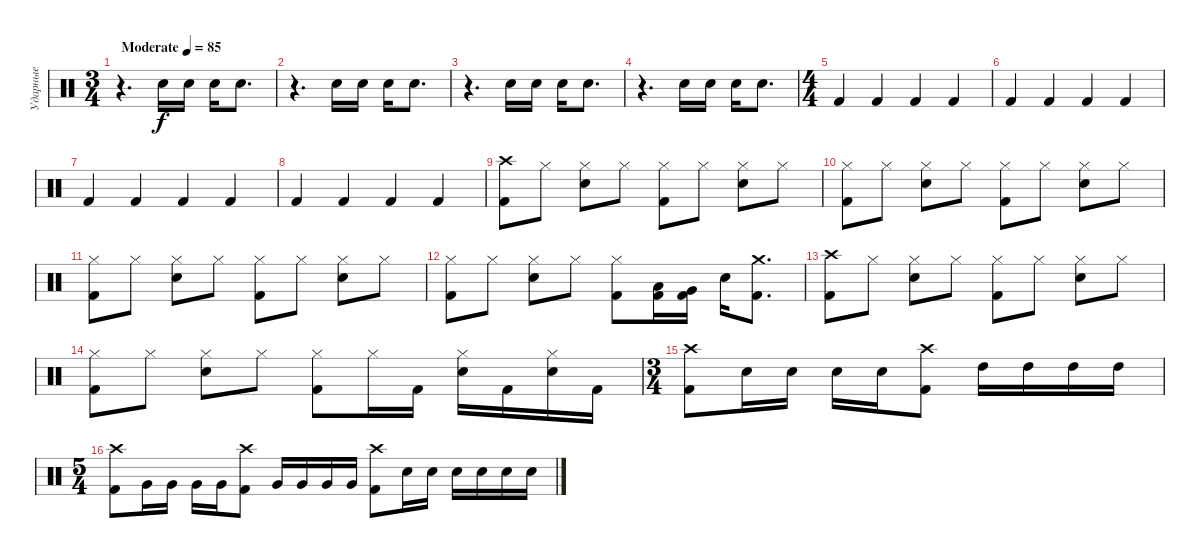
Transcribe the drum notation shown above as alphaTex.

\track ("Ударные" "Ударные") {instrument percussion}
\staff {score}
\articulation defaults
\ts (3 4)
\tempo (85 "Moderate")
\clef neutral
\ks c
r.4{d dy f} "Electric Snare (hit)".16 "Electric Snare (hit)".16 "Electric Snare (hit)".16 "Electric Snare (hit)".8{d} |
r.4{d} "Electric Snare (hit)".16 "Electric Snare (hit)".16 "Electric Snare (hit)".16 "Electric Snare (hit)".8{d} |
r.4{d} "Electric Snare (hit)".16 "Electric Snare (hit)".16 "Electric Snare (hit)".16 "Electric Snare (hit)".8{d} |
r.4{d} "Electric Snare (hit)".16 "Electric Snare (hit)".16 "Electric Snare (hit)".16 "Electric Snare (hit)".8{d} |
\ts (4 4)
"Kick (hit) 2".4 "Kick (hit) 2".4 "Kick (hit) 2".4 "Kick (hit) 2".4 |
"Kick (hit) 2".4 "Kick (hit) 2".4 "Kick (hit) 2".4 "Kick (hit) 2".4 |
"Kick (hit) 2".4 "Kick (hit) 2".4 "Kick (hit) 2".4 "Kick (hit) 2".4 |
"Kick (hit) 2".4 "Kick (hit) 2".4 "Kick (hit) 2".4 "Kick (hit) 2".4 |
("Crash high (hit)" "Kick (hit) 2").8 "Hi-Hat (closed)".8 ("Hi-Hat (closed)" "Electric Snare (hit)").8 "Hi-Hat (closed)".8 ("Hi-Hat (closed)" "Kick (hit) 2").8 "Hi-Hat (closed)".8 ("Hi-Hat (closed)" "Electric Snare (hit)").8 "Hi-Hat (closed)".8 |
("Hi-Hat (closed)" "Kick (hit) 2").8 "Hi-Hat (closed)".8 ("Hi-Hat (closed)" "Electric Snare (hit)").8 "Hi-Hat (closed)".8 ("Hi-Hat (closed)" "Kick (hit) 2").8 "Hi-Hat (closed)".8 ("Hi-Hat (closed)" "Electric Snare (hit)").8 "Hi-Hat (closed)".8 |
("Hi-Hat (closed)" "Kick (hit) 2").8 "Hi-Hat (closed)".8 ("Hi-Hat (closed)" "Electric Snare (hit)").8 "Hi-Hat (closed)".8 ("Hi-Hat (closed)" "Kick (hit) 2").8 "Hi-Hat (closed)".8 ("Hi-Hat (closed)" "Electric Snare (hit)").8 "Hi-Hat (closed)".8 |
("Hi-Hat (closed)" "Kick (hit) 2").8 "Hi-Hat (closed)".8 ("Hi-Hat (closed)" "Electric Snare (hit)").8 "Hi-Hat (closed)".8 ("Hi-Hat (closed)" "Kick (hit) 2").8 ("Low Tom (hit)" "Kick (hit) 2").16 ("Very Low Tom (hit)" "Kick (hit) 2").16 "Electric Snare (hit)".16 ("Crash medium (hit)" "Kick (hit) 2").8{d} |
("Crash high (hit)" "Kick (hit) 2").8 "Hi-Hat (closed)".8 ("Hi-Hat (closed)" "Electric Snare (hit)").8 "Hi-Hat (closed)".8 ("Hi-Hat (closed)" "Kick (hit) 2").8 "Hi-Hat (closed)".8 ("Hi-Hat (closed)" "Electric Snare (hit)").8 "Hi-Hat (closed)".8 |
("Hi-Hat (closed)" "Kick (hit) 2").8 "Hi-Hat (closed)".8 ("Hi-Hat (closed)" "Electric Snare (hit)").8 "Hi-Hat (closed)".8 ("Hi-Hat (closed)" "Kick (hit) 2").8 "Hi-Hat (closed)".16 "Kick (hit) 2".16 ("Hi-Hat (closed)" "Electric Snare (hit)").16 "Kick (hit) 2".16 ("Hi-Hat (closed)" "Electric Snare (hit)").16 "Kick (hit) 2".16 |
\ts (3 4)
("Crash high (hit)" "Kick (hit) 2").8 "Electric Snare (hit)".16 "Electric Snare (hit)".16 "Electric Snare (hit)".16 "Electric Snare (hit)".16 ("Crash high (hit)" "Kick (hit) 2").8 "High Tom (hit)".16 "High Tom (hit)".16 "High Tom (hit)".16 "High Tom (hit)".16 |
\ts (5 4)
("Crash high (hit)" "Kick (hit) 2").8 "Very Low Tom (hit)".16 "Very Low Tom (hit)".16 "Very Low Tom (hit)".16 "Very Low Tom (hit)".16 ("Crash high (hit)" "Kick (hit) 2").8 "Very Low Tom (hit)".16 "Very Low Tom (hit)".16 "Very Low Tom (hit)".16 "Very Low Tom (hit)".16 ("Crash high (hit)" "Kick (hit) 2").8 "Electric Snare (hit)".16 "Electric Snare (hit)".16 "Electric Snare (hit)".16 "Electric Snare (hit)".16 "Electric Snare (hit)".16 "Electric Snare (hit)".16
